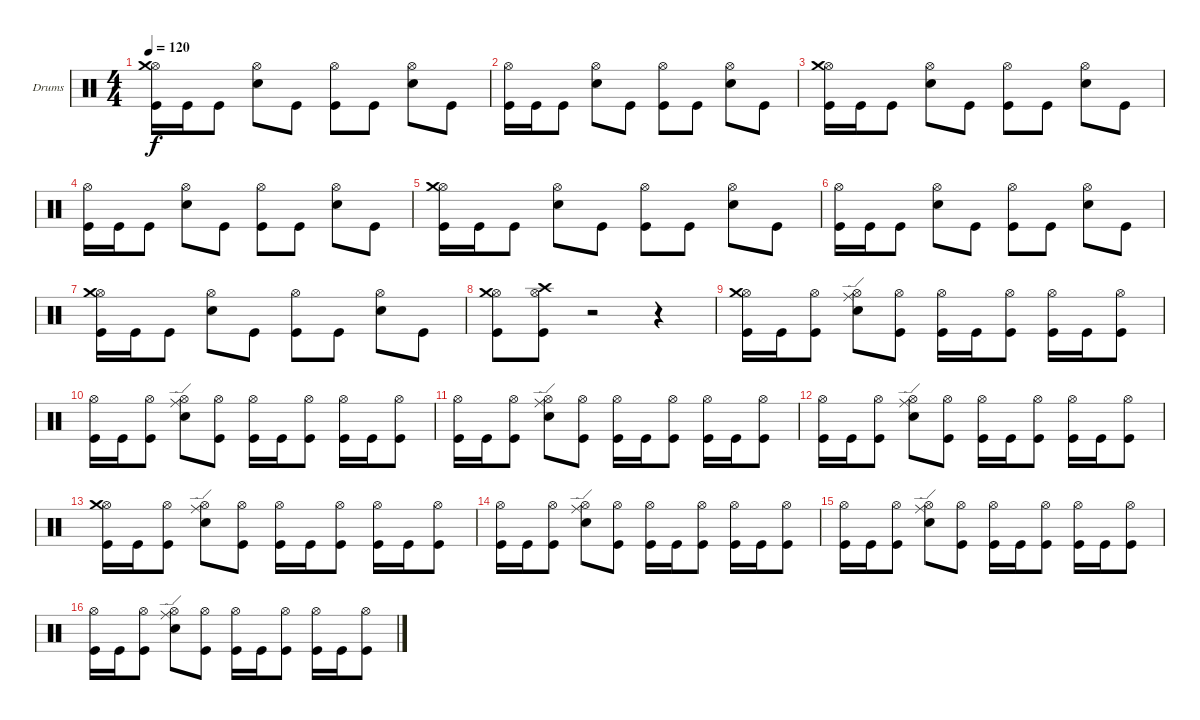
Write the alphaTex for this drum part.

\defaultSystemsLayout 4
\bracketExtendMode groupsimilarinstruments
\firstSystemTrackNameOrientation horizontal
\otherSystemsTrackNameOrientation horizontal
\track ("Drumkit" "Drums") {instrument percussion}
\staff {score}
\articulation defaults
\ts (4 4)
\tempo 120
\clef neutral
\ks c
("Kick (hit)" "Hi-Hat (open)" "Crash medium (hit)").16{dy f} "Kick (hit)".16 "Kick (hit)".8 ("Snare (hit) 2" "Hi-Hat (open)").8 "Kick (hit)".8 ("Kick (hit)" "Hi-Hat (open)").8 "Kick (hit)".8 ("Snare (hit) 2" "Hi-Hat (open)").8 "Kick (hit)".8 |
("Kick (hit)" "Hi-Hat (open)").16 "Kick (hit)".16 "Kick (hit)".8 ("Snare (hit) 2" "Hi-Hat (open)").8 "Kick (hit)".8 ("Kick (hit)" "Hi-Hat (open)").8 "Kick (hit)".8 ("Snare (hit) 2" "Hi-Hat (open)").8 "Kick (hit)".8 |
("Kick (hit)" "Hi-Hat (open)" "Crash medium (hit)").16 "Kick (hit)".16 "Kick (hit)".8 ("Snare (hit) 2" "Hi-Hat (open)").8 "Kick (hit)".8 ("Kick (hit)" "Hi-Hat (open)").8 "Kick (hit)".8 ("Snare (hit) 2" "Hi-Hat (open)").8 "Kick (hit)".8 |
("Kick (hit)" "Hi-Hat (open)").16 "Kick (hit)".16 "Kick (hit)".8 ("Snare (hit) 2" "Hi-Hat (open)").8 "Kick (hit)".8 ("Kick (hit)" "Hi-Hat (open)").8 "Kick (hit)".8 ("Snare (hit) 2" "Hi-Hat (open)").8 "Kick (hit)".8 |
("Kick (hit)" "Hi-Hat (open)" "Crash medium (hit)").16 "Kick (hit)".16 "Kick (hit)".8 ("Snare (hit) 2" "Hi-Hat (open)").8 "Kick (hit)".8 ("Kick (hit)" "Hi-Hat (open)").8 "Kick (hit)".8 ("Snare (hit) 2" "Hi-Hat (open)").8 "Kick (hit)".8 |
("Kick (hit)" "Hi-Hat (open)").16 "Kick (hit)".16 "Kick (hit)".8 ("Snare (hit) 2" "Hi-Hat (open)").8 "Kick (hit)".8 ("Kick (hit)" "Hi-Hat (open)").8 "Kick (hit)".8 ("Snare (hit) 2" "Hi-Hat (open)").8 "Kick (hit)".8 |
("Kick (hit)" "Hi-Hat (open)" "Crash medium (hit)").16 "Kick (hit)".16 "Kick (hit)".8 ("Snare (hit) 2" "Hi-Hat (open)").8 "Kick (hit)".8 ("Kick (hit)" "Hi-Hat (open)").8 "Kick (hit)".8 ("Snare (hit) 2" "Hi-Hat (open)").8 "Kick (hit)".8 |
("Kick (hit)" "Hi-Hat (open)" "Crash medium (hit)").8 ("Kick (hit)" "Hi-Hat (open)" "Crash high (hit)").8 r.2 r.4 |
("Kick (hit)" "Hi-Hat (open)" "Crash medium (hit)").16 "Kick (hit)".16 ("Kick (hit)" "Hi-Hat (open)").8 ("Snare (hit) 2" "Hi-Hat (open)" "Ride (edge)").8 ("Kick (hit)" "Hi-Hat (open)").8 ("Kick (hit)" "Hi-Hat (open)").16 "Kick (hit)".16 ("Kick (hit)" "Hi-Hat (open)").8 ("Kick (hit)" "Hi-Hat (open)").16 "Kick (hit)".16 ("Kick (hit)" "Hi-Hat (open)").8 |
("Kick (hit)" "Hi-Hat (open)").16 "Kick (hit)".16 ("Kick (hit)" "Hi-Hat (open)").8 ("Snare (hit) 2" "Hi-Hat (open)" "Ride (edge)").8 ("Kick (hit)" "Hi-Hat (open)").8 ("Kick (hit)" "Hi-Hat (open)").16 "Kick (hit)".16 ("Kick (hit)" "Hi-Hat (open)").8 ("Kick (hit)" "Hi-Hat (open)").16 "Kick (hit)".16 ("Kick (hit)" "Hi-Hat (open)").8 |
("Kick (hit)" "Hi-Hat (open)").16 "Kick (hit)".16 ("Kick (hit)" "Hi-Hat (open)").8 ("Snare (hit) 2" "Hi-Hat (open)" "Ride (edge)").8 ("Kick (hit)" "Hi-Hat (open)").8 ("Kick (hit)" "Hi-Hat (open)").16 "Kick (hit)".16 ("Kick (hit)" "Hi-Hat (open)").8 ("Kick (hit)" "Hi-Hat (open)").16 "Kick (hit)".16 ("Kick (hit)" "Hi-Hat (open)").8 |
("Kick (hit)" "Hi-Hat (open)").16 "Kick (hit)".16 ("Kick (hit)" "Hi-Hat (open)").8 ("Snare (hit) 2" "Hi-Hat (open)" "Ride (edge)").8 ("Kick (hit)" "Hi-Hat (open)").8 ("Kick (hit)" "Hi-Hat (open)").16 "Kick (hit)".16 ("Kick (hit)" "Hi-Hat (open)").8 ("Kick (hit)" "Hi-Hat (open)").16 "Kick (hit)".16 ("Kick (hit)" "Hi-Hat (open)").8 |
("Kick (hit)" "Hi-Hat (open)" "Crash medium (hit)").16 "Kick (hit)".16 ("Kick (hit)" "Hi-Hat (open)").8 ("Snare (hit) 2" "Hi-Hat (open)" "Ride (edge)").8 ("Kick (hit)" "Hi-Hat (open)").8 ("Kick (hit)" "Hi-Hat (open)").16 "Kick (hit)".16 ("Kick (hit)" "Hi-Hat (open)").8 ("Kick (hit)" "Hi-Hat (open)").16 "Kick (hit)".16 ("Kick (hit)" "Hi-Hat (open)").8 |
("Kick (hit)" "Hi-Hat (open)").16 "Kick (hit)".16 ("Kick (hit)" "Hi-Hat (open)").8 ("Snare (hit) 2" "Hi-Hat (open)" "Ride (edge)").8 ("Kick (hit)" "Hi-Hat (open)").8 ("Kick (hit)" "Hi-Hat (open)").16 "Kick (hit)".16 ("Kick (hit)" "Hi-Hat (open)").8 ("Kick (hit)" "Hi-Hat (open)").16 "Kick (hit)".16 ("Kick (hit)" "Hi-Hat (open)").8 |
("Kick (hit)" "Hi-Hat (open)").16 "Kick (hit)".16 ("Kick (hit)" "Hi-Hat (open)").8 ("Snare (hit) 2" "Hi-Hat (open)" "Ride (edge)").8 ("Kick (hit)" "Hi-Hat (open)").8 ("Kick (hit)" "Hi-Hat (open)").16 "Kick (hit)".16 ("Kick (hit)" "Hi-Hat (open)").8 ("Kick (hit)" "Hi-Hat (open)").16 "Kick (hit)".16 ("Kick (hit)" "Hi-Hat (open)").8 |
("Kick (hit)" "Hi-Hat (open)").16 "Kick (hit)".16 ("Kick (hit)" "Hi-Hat (open)").8 ("Snare (hit) 2" "Hi-Hat (open)" "Ride (edge)").8 ("Kick (hit)" "Hi-Hat (open)").8 ("Kick (hit)" "Hi-Hat (open)").16 "Kick (hit)".16 ("Kick (hit)" "Hi-Hat (open)").8 ("Kick (hit)" "Hi-Hat (open)").16 "Kick (hit)".16 ("Kick (hit)" "Hi-Hat (open)").8
